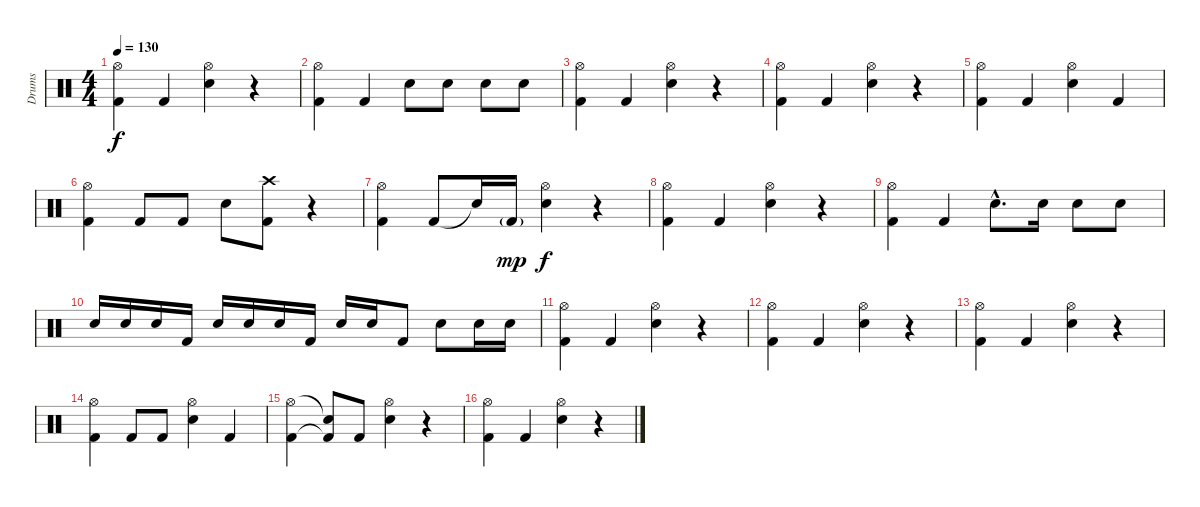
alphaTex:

\track ("Drums" "Drums") {instrument percussion}
\staff {score}
\articulation defaults
\ts (4 4)
\tempo 130
\clef neutral
\ks c
("Hi-Hat (open)" "Kick (hit) 2").4{dy f} "Kick (hit) 2".4 ("Hi-Hat (open)" "Electric Snare (hit)").4 r.4 |
("Hi-Hat (open)" "Kick (hit) 2").4 "Kick (hit) 2".4 "Electric Snare (hit)".8 "Electric Snare (hit)".8 "Electric Snare (hit)".8 "Electric Snare (hit)".8 |
("Hi-Hat (open)" "Kick (hit) 2").4 "Kick (hit) 2".4 ("Hi-Hat (open)" "Electric Snare (hit)").4 r.4 |
("Hi-Hat (open)" "Kick (hit) 2").4 "Kick (hit) 2".4 ("Hi-Hat (open)" "Electric Snare (hit)").4 r.4 |
("Hi-Hat (open)" "Kick (hit) 2").4 "Kick (hit) 2".4 ("Hi-Hat (open)" "Electric Snare (hit)").4 "Kick (hit) 2".4 |
("Hi-Hat (open)" "Kick (hit) 2").4 "Kick (hit) 2".8 "Kick (hit) 2".8 "Electric Snare (hit)".8 ("Crash high (hit)" "Kick (hit) 2").8 r.4 |
("Hi-Hat (open)" "Kick (hit) 2").4 "Kick (hit) 2".8 "Snare (hit)"{t}.16 "Kick (hit) 2"{g}.16{dy mp} ("Hi-Hat (open)" "Electric Snare (hit)").4{dy f} r.4 |
("Hi-Hat (open)" "Kick (hit) 2").4 "Kick (hit) 2".4 ("Hi-Hat (open)" "Electric Snare (hit)").4 r.4 |
("Hi-Hat (open)" "Kick (hit) 2").4 "Kick (hit) 2".4 "Electric Snare (hit)"{hac}.8{d} "Electric Snare (hit)".16 "Electric Snare (hit)".8 "Electric Snare (hit)".8 |
"Electric Snare (hit)".16 "Electric Snare (hit)".16 "Electric Snare (hit)".16 "Kick (hit) 2".16 "Electric Snare (hit)".16 "Electric Snare (hit)".16 "Electric Snare (hit)".16 "Kick (hit) 2".16 "Electric Snare (hit)".16 "Electric Snare (hit)".16 "Kick (hit) 2".8 "Electric Snare (hit)".8 "Electric Snare (hit)".16 "Electric Snare (hit)".16 |
("Hi-Hat (open)" "Kick (hit) 2").4 "Kick (hit) 2".4 ("Hi-Hat (open)" "Electric Snare (hit)").4 r.4 |
("Hi-Hat (open)" "Kick (hit) 2").4 "Kick (hit) 2".4 ("Hi-Hat (open)" "Electric Snare (hit)").4 r.4 |
("Hi-Hat (open)" "Kick (hit) 2").4 "Kick (hit) 2".4 ("Hi-Hat (open)" "Electric Snare (hit)").4 r.4 |
("Hi-Hat (open)" "Kick (hit) 2").4 "Kick (hit) 2".8 "Kick (hit) 2".8 ("Hi-Hat (open)" "Electric Snare (hit)").4 "Kick (hit) 2".4 |
("Hi-Hat (open)" "Kick (hit) 2").4 ("Snare (hit)"{t} "Kick (hit) 2"{t}).8 "Kick (hit) 2".8 ("Hi-Hat (open)" "Electric Snare (hit)").4 r.4 |
("Hi-Hat (open)" "Kick (hit) 2").4 "Kick (hit) 2".4 ("Hi-Hat (open)" "Electric Snare (hit)").4 r.4
